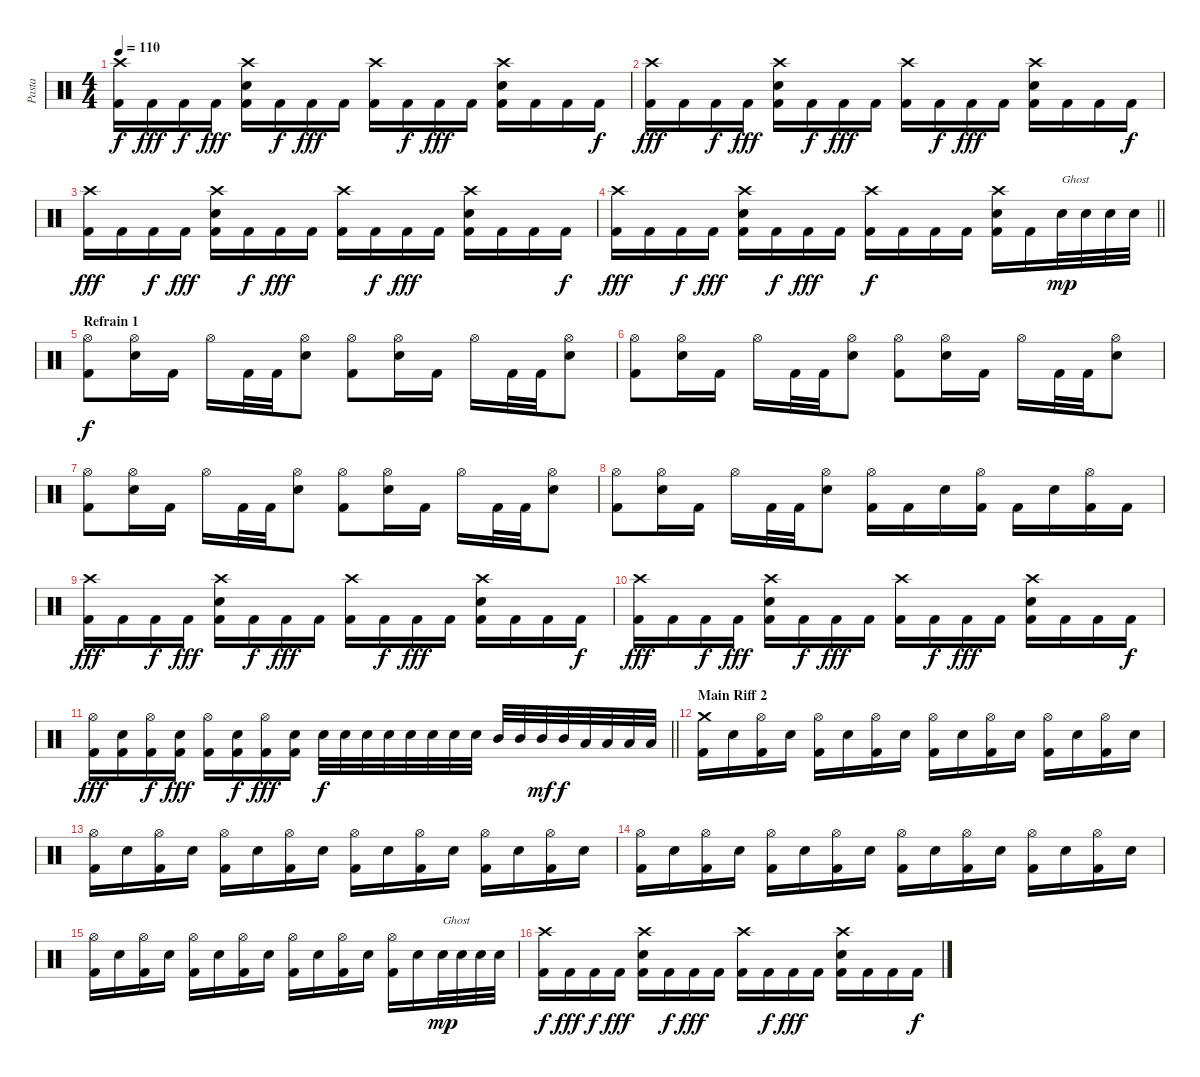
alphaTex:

\track ("Pasta" "Pasta") {instrument percussion}
\staff {score}
\articulation defaults
\ts (4 4)
\tempo 110
\clef neutral
\ks c
("Crash high (hit)" "Kick (hit) 2").16{dy f} "Kick (hit) 2".16{dy fff} "Kick (hit) 2".16{dy f} "Kick (hit) 2".16{dy fff} ("Crash high (hit)" "Electric Snare (hit)" "Kick (hit) 2").16 "Kick (hit) 2".16{dy f} "Kick (hit) 2".16{dy fff} "Kick (hit) 2".16 ("Crash high (hit)" "Kick (hit) 2").16 "Kick (hit) 2".16{dy f} "Kick (hit) 2".16{dy fff} "Kick (hit) 2".16 ("Crash high (hit)" "Electric Snare (hit)" "Kick (hit) 2").16 "Kick (hit) 2".16 "Kick (hit) 2".16 "Kick (hit) 2".16{dy f} |
("Crash high (hit)" "Kick (hit) 2").16{dy fff} "Kick (hit) 2".16 "Kick (hit) 2".16{dy f} "Kick (hit) 2".16{dy fff} ("Crash high (hit)" "Electric Snare (hit)" "Kick (hit) 2").16 "Kick (hit) 2".16{dy f} "Kick (hit) 2".16{dy fff} "Kick (hit) 2".16 ("Crash high (hit)" "Kick (hit) 2").16 "Kick (hit) 2".16{dy f} "Kick (hit) 2".16{dy fff} "Kick (hit) 2".16 ("Crash high (hit)" "Electric Snare (hit)" "Kick (hit) 2").16 "Kick (hit) 2".16 "Kick (hit) 2".16 "Kick (hit) 2".16{dy f} |
("Crash high (hit)" "Kick (hit) 2").16{dy fff} "Kick (hit) 2".16 "Kick (hit) 2".16{dy f} "Kick (hit) 2".16{dy fff} ("Crash high (hit)" "Electric Snare (hit)" "Kick (hit) 2").16 "Kick (hit) 2".16{dy f} "Kick (hit) 2".16{dy fff} "Kick (hit) 2".16 ("Crash high (hit)" "Kick (hit) 2").16 "Kick (hit) 2".16{dy f} "Kick (hit) 2".16{dy fff} "Kick (hit) 2".16 ("Crash high (hit)" "Electric Snare (hit)" "Kick (hit) 2").16 "Kick (hit) 2".16 "Kick (hit) 2".16 "Kick (hit) 2".16{dy f} |
\barLineRight lightlight
("Crash high (hit)" "Kick (hit) 2").16{dy fff} "Kick (hit) 2".16 "Kick (hit) 2".16{dy f} "Kick (hit) 2".16{dy fff} ("Crash high (hit)" "Electric Snare (hit)" "Kick (hit) 2").16 "Kick (hit) 2".16{dy f} "Kick (hit) 2".16{dy fff} "Kick (hit) 2".16 ("Crash high (hit)" "Kick (hit) 2").16{dy f} "Kick (hit) 2".16 "Kick (hit) 2".16 "Kick (hit) 2".16 ("Crash high (hit)" "Electric Snare (hit)" "Kick (hit) 2").16 "Kick (hit) 2".16 "Electric Snare (hit)".32{txt "Ghost" dy mp} "Electric Snare (hit)".32 "Electric Snare (hit)".32 "Electric Snare (hit)".32 |
\section ("" "Refrain 1")
("Hi-Hat (open)" "Kick (hit) 2").8{dy f} ("Hi-Hat (open)" "Electric Snare (hit)").16 "Kick (hit) 2".16 "Hi-Hat (open)".16 "Kick (hit) 2".32 "Kick (hit) 2".32 ("Hi-Hat (open)" "Electric Snare (hit)").8 ("Hi-Hat (open)" "Kick (hit) 2").8 ("Hi-Hat (open)" "Electric Snare (hit)").16 "Kick (hit) 2".16 "Hi-Hat (open)".16 "Kick (hit) 2".32 "Kick (hit) 2".32 ("Hi-Hat (open)" "Electric Snare (hit)").8 |
("Hi-Hat (open)" "Kick (hit) 2").8 ("Hi-Hat (open)" "Electric Snare (hit)").16 "Kick (hit) 2".16 "Hi-Hat (open)".16 "Kick (hit) 2".32 "Kick (hit) 2".32 ("Hi-Hat (open)" "Electric Snare (hit)").8 ("Hi-Hat (open)" "Kick (hit) 2").8 ("Hi-Hat (open)" "Electric Snare (hit)").16 "Kick (hit) 2".16 "Hi-Hat (open)".16 "Kick (hit) 2".32 "Kick (hit) 2".32 ("Hi-Hat (open)" "Electric Snare (hit)").8 |
("Hi-Hat (open)" "Kick (hit) 2").8 ("Hi-Hat (open)" "Electric Snare (hit)").16 "Kick (hit) 2".16 "Hi-Hat (open)".16 "Kick (hit) 2".32 "Kick (hit) 2".32 ("Hi-Hat (open)" "Electric Snare (hit)").8 ("Hi-Hat (open)" "Kick (hit) 2").8 ("Hi-Hat (open)" "Electric Snare (hit)").16 "Kick (hit) 2".16 "Hi-Hat (open)".16 "Kick (hit) 2".32 "Kick (hit) 2".32 ("Hi-Hat (open)" "Electric Snare (hit)").8 |
("Hi-Hat (open)" "Kick (hit) 2").8 ("Hi-Hat (open)" "Electric Snare (hit)").16 "Kick (hit) 2".16 "Hi-Hat (open)".16 "Kick (hit) 2".32 "Kick (hit) 2".32 ("Hi-Hat (open)" "Electric Snare (hit)").8 ("Hi-Hat (open)" "Kick (hit) 2").16 "Kick (hit) 2".16 "Electric Snare (hit)".16 ("Hi-Hat (open)" "Kick (hit) 2").16 "Kick (hit) 2".16 "Electric Snare (hit)".16 ("Hi-Hat (open)" "Kick (hit) 2").16 "Kick (hit) 2".16 |
("Crash high (hit)" "Kick (hit) 2").16{dy fff} "Kick (hit) 2".16 "Kick (hit) 2".16{dy f} "Kick (hit) 2".16{dy fff} ("Crash high (hit)" "Electric Snare (hit)" "Kick (hit) 2").16 "Kick (hit) 2".16{dy f} "Kick (hit) 2".16{dy fff} "Kick (hit) 2".16 ("Crash high (hit)" "Kick (hit) 2").16 "Kick (hit) 2".16{dy f} "Kick (hit) 2".16{dy fff} "Kick (hit) 2".16 ("Crash high (hit)" "Electric Snare (hit)" "Kick (hit) 2").16 "Kick (hit) 2".16 "Kick (hit) 2".16 "Kick (hit) 2".16{dy f} |
("Crash high (hit)" "Kick (hit) 2").16{dy fff} "Kick (hit) 2".16 "Kick (hit) 2".16{dy f} "Kick (hit) 2".16{dy fff} ("Crash high (hit)" "Electric Snare (hit)" "Kick (hit) 2").16 "Kick (hit) 2".16{dy f} "Kick (hit) 2".16{dy fff} "Kick (hit) 2".16 ("Crash high (hit)" "Kick (hit) 2").16 "Kick (hit) 2".16{dy f} "Kick (hit) 2".16{dy fff} "Kick (hit) 2".16 ("Crash high (hit)" "Electric Snare (hit)" "Kick (hit) 2").16 "Kick (hit) 2".16 "Kick (hit) 2".16 "Kick (hit) 2".16{dy f} |
\barLineRight lightlight
("Hi-Hat (open)" "Kick (hit) 2").16{dy fff} ("Electric Snare (hit)" "Kick (hit) 2").16 ("Hi-Hat (open)" "Kick (hit) 2").16{dy f} ("Electric Snare (hit)" "Kick (hit) 2").16{dy fff} ("Hi-Hat (open)" "Kick (hit) 2").16 ("Electric Snare (hit)" "Kick (hit) 2").16{dy f} ("Hi-Hat (open)" "Kick (hit) 2").16{dy fff} ("Electric Snare (hit)" "Kick (hit) 2").16 "Electric Snare (hit)".32{dy f} "Electric Snare (hit)".32 "Electric Snare (hit)".32 "Electric Snare (hit)".32 "Electric Snare (hit)".32 "Electric Snare (hit)".32 "Electric Snare (hit)".32 "Electric Snare (hit)".32 "Mid Tom (hit)".32 "Mid Tom (hit)".32 "Mid Tom (hit)".32{dy mf} "Mid Tom (hit)".32{dy f} "Low Tom (hit)".32 "Low Tom (hit)".32 "Low Tom (hit)".32 "Low Tom (hit)".32 |
\section ("" "Main Riff 2")
("Crash medium (hit)" "Kick (hit) 2").16 "Electric Snare (hit)".16 ("Hi-Hat (open)" "Kick (hit) 2").16 "Electric Snare (hit)".16 ("Hi-Hat (open)" "Kick (hit) 2").16 "Electric Snare (hit)".16 ("Hi-Hat (open)" "Kick (hit) 2").16 "Electric Snare (hit)".16 ("Hi-Hat (open)" "Kick (hit) 2").16 "Electric Snare (hit)".16 ("Hi-Hat (open)" "Kick (hit) 2").16 "Electric Snare (hit)".16 ("Hi-Hat (open)" "Kick (hit) 2").16 "Electric Snare (hit)".16 ("Hi-Hat (open)" "Kick (hit) 2").16 "Electric Snare (hit)".16 |
("Hi-Hat (open)" "Kick (hit) 2").16 "Electric Snare (hit)".16 ("Hi-Hat (open)" "Kick (hit) 2").16 "Electric Snare (hit)".16 ("Hi-Hat (open)" "Kick (hit) 2").16 "Electric Snare (hit)".16 ("Hi-Hat (open)" "Kick (hit) 2").16 "Electric Snare (hit)".16 ("Hi-Hat (open)" "Kick (hit) 2").16 "Electric Snare (hit)".16 ("Hi-Hat (open)" "Kick (hit) 2").16 "Electric Snare (hit)".16 ("Hi-Hat (open)" "Kick (hit) 2").16 "Electric Snare (hit)".16 ("Hi-Hat (open)" "Kick (hit) 2").16 "Electric Snare (hit)".16 |
("Hi-Hat (open)" "Kick (hit) 2").16 "Electric Snare (hit)".16 ("Hi-Hat (open)" "Kick (hit) 2").16 "Electric Snare (hit)".16 ("Hi-Hat (open)" "Kick (hit) 2").16 "Electric Snare (hit)".16 ("Hi-Hat (open)" "Kick (hit) 2").16 "Electric Snare (hit)".16 ("Hi-Hat (open)" "Kick (hit) 2").16 "Electric Snare (hit)".16 ("Hi-Hat (open)" "Kick (hit) 2").16 "Electric Snare (hit)".16 ("Hi-Hat (open)" "Kick (hit) 2").16 "Electric Snare (hit)".16 ("Hi-Hat (open)" "Kick (hit) 2").16 "Electric Snare (hit)".16 |
("Hi-Hat (open)" "Kick (hit) 2").16 "Electric Snare (hit)".16 ("Hi-Hat (open)" "Kick (hit) 2").16 "Electric Snare (hit)".16 ("Hi-Hat (open)" "Kick (hit) 2").16 "Electric Snare (hit)".16 ("Hi-Hat (open)" "Kick (hit) 2").16 "Electric Snare (hit)".16 ("Hi-Hat (open)" "Kick (hit) 2").16 "Electric Snare (hit)".16 ("Hi-Hat (open)" "Kick (hit) 2").16 "Electric Snare (hit)".16 ("Hi-Hat (open)" "Kick (hit) 2").16 "Electric Snare (hit)".16 "Electric Snare (hit)".32{txt "Ghost" dy mp} "Electric Snare (hit)".32 "Electric Snare (hit)".32 "Electric Snare (hit)".32 |
("Crash high (hit)" "Kick (hit) 2").16{dy f} "Kick (hit) 2".16{dy fff} "Kick (hit) 2".16{dy f} "Kick (hit) 2".16{dy fff} ("Crash high (hit)" "Electric Snare (hit)" "Kick (hit) 2").16 "Kick (hit) 2".16{dy f} "Kick (hit) 2".16{dy fff} "Kick (hit) 2".16 ("Crash high (hit)" "Kick (hit) 2").16 "Kick (hit) 2".16{dy f} "Kick (hit) 2".16{dy fff} "Kick (hit) 2".16 ("Crash high (hit)" "Electric Snare (hit)" "Kick (hit) 2").16 "Kick (hit) 2".16 "Kick (hit) 2".16 "Kick (hit) 2".16{dy f}
